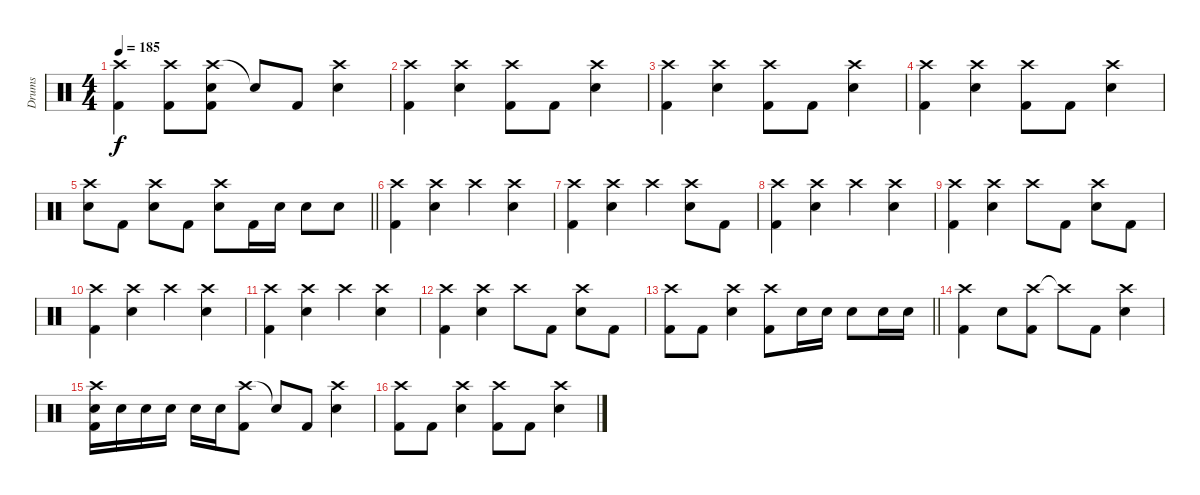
\track ("Drums" "Drums") {instrument percussion}
\staff {score}
\articulation defaults
\ts (4 4)
\tempo 185
\clef neutral
\ks c
("Crash high (hit)" "Kick (hit) 2").4{dy f} ("Crash high (hit)" "Kick (hit) 2").8 ("Crash high (hit)" "Electric Snare (hit)" "Kick (hit) 2").8 "Snare (hit)"{t}.8 "Kick (hit) 2".8 ("Crash high (hit)" "Electric Snare (hit)").4 |
("Crash high (hit)" "Kick (hit) 2").4 ("Crash high (hit)" "Electric Snare (hit)").4 ("Crash high (hit)" "Kick (hit) 2").8 "Kick (hit) 2".8 ("Crash high (hit)" "Electric Snare (hit)").4 |
("Crash high (hit)" "Kick (hit) 2").4 ("Crash high (hit)" "Electric Snare (hit)").4 ("Crash high (hit)" "Kick (hit) 2").8 "Kick (hit) 2".8 ("Crash high (hit)" "Electric Snare (hit)").4 |
("Crash high (hit)" "Kick (hit) 2").4 ("Crash high (hit)" "Electric Snare (hit)").4 ("Crash high (hit)" "Kick (hit) 2").8 "Kick (hit) 2".8 ("Crash high (hit)" "Electric Snare (hit)").4 |
\barLineRight lightlight
("Crash high (hit)" "Electric Snare (hit)").8 "Kick (hit) 2".8 ("Crash high (hit)" "Electric Snare (hit)").8 "Kick (hit) 2".8 ("Crash high (hit)" "Electric Snare (hit)").8 "Kick (hit) 2".16 "Electric Snare (hit)".16 "Electric Snare (hit)".8 "Electric Snare (hit)".8 |
("Crash high (hit)" "Kick (hit) 2").4 ("Crash high (hit)" "Electric Snare (hit)").4 "Crash high (hit)".4 ("Crash high (hit)" "Electric Snare (hit)").4 |
("Crash high (hit)" "Kick (hit) 2").4 ("Crash high (hit)" "Electric Snare (hit)").4 "Crash high (hit)".4 ("Crash high (hit)" "Electric Snare (hit)").8 "Kick (hit) 2".8 |
("Crash high (hit)" "Kick (hit) 2").4 ("Crash high (hit)" "Electric Snare (hit)").4 "Crash high (hit)".4 ("Crash high (hit)" "Electric Snare (hit)").4 |
("Crash high (hit)" "Kick (hit) 2").4 ("Crash high (hit)" "Electric Snare (hit)").4 "Crash high (hit)".8 "Kick (hit) 2".8 ("Crash high (hit)" "Electric Snare (hit)").8 "Kick (hit) 2".8 |
("Crash high (hit)" "Kick (hit) 2").4 ("Crash high (hit)" "Electric Snare (hit)").4 "Crash high (hit)".4 ("Crash high (hit)" "Electric Snare (hit)").4 |
("Crash high (hit)" "Kick (hit) 2").4 ("Crash high (hit)" "Electric Snare (hit)").4 "Crash high (hit)".4 ("Crash high (hit)" "Electric Snare (hit)").4 |
("Crash high (hit)" "Kick (hit) 2").4 ("Crash high (hit)" "Electric Snare (hit)").4 "Crash high (hit)".8 "Kick (hit) 2".8 ("Crash high (hit)" "Electric Snare (hit)").8 "Kick (hit) 2".8 |
\barLineRight lightlight
("Crash high (hit)" "Kick (hit) 2").8 "Kick (hit) 2".8 ("Crash high (hit)" "Electric Snare (hit)").4 ("Crash high (hit)" "Kick (hit) 2").8 "Electric Snare (hit)".16 "Electric Snare (hit)".16 "Electric Snare (hit)".8 "Electric Snare (hit)".16 "Electric Snare (hit)".16 |
("Crash high (hit)" "Kick (hit) 2").4 "Electric Snare (hit)".8 ("Crash high (hit)" "Kick (hit) 2").8 "Crash high (hit)"{t}.8 "Kick (hit) 2".8 ("Crash high (hit)" "Electric Snare (hit)").4 |
("Crash high (hit)" "Electric Snare (hit)" "Kick (hit) 2").16 "Electric Snare (hit)".16 "Electric Snare (hit)".16 "Electric Snare (hit)".16 "Electric Snare (hit)".16 "Electric Snare (hit)".16 ("Crash high (hit)" "Kick (hit) 2").8 "Snare (hit)"{t}.8 "Kick (hit) 2".8 ("Crash high (hit)" "Electric Snare (hit)").4 |
("Crash high (hit)" "Kick (hit) 2").8 "Kick (hit) 2".8 ("Crash high (hit)" "Electric Snare (hit)").4 ("Crash high (hit)" "Kick (hit) 2").8 "Kick (hit) 2".8 ("Crash high (hit)" "Electric Snare (hit)").4
